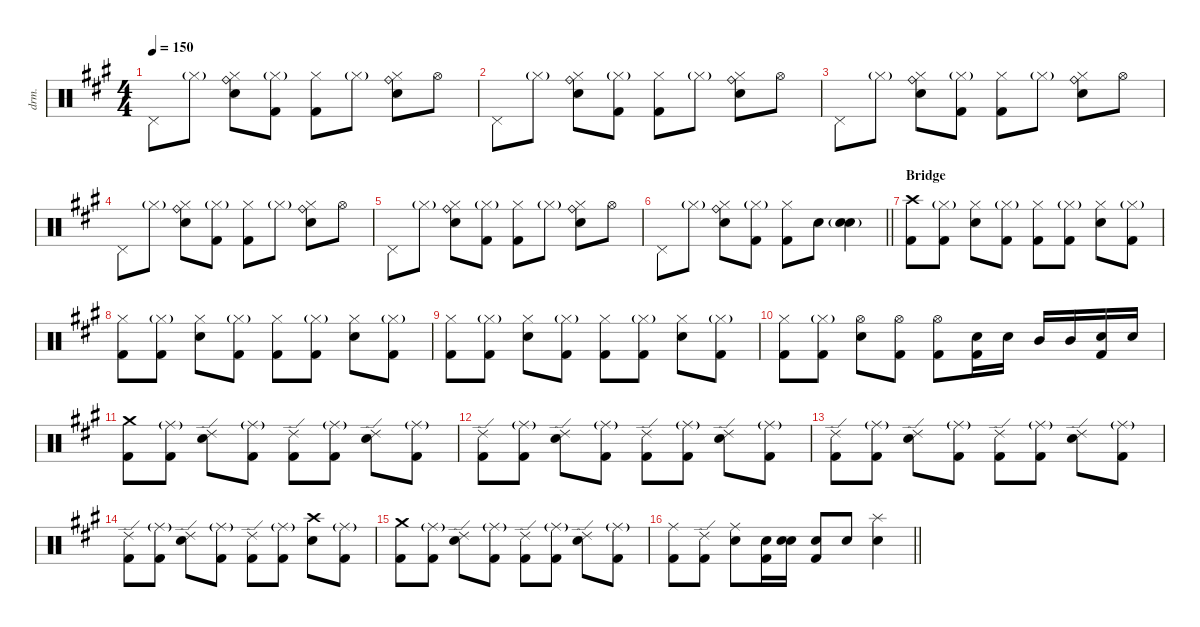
\defaultSystemsLayout 4
\hideDynamics
\bracketExtendMode nobrackets
\otherSystemsTrackNameOrientation horizontal
\track ("Drums" "drm.") {instrument percussion}
\staff {score}
\articulation defaults
\ts (4 4)
\tempo 150
\clef neutral
\ks a "Pedal Hi-Hat (hit)"{acc forcenatural}.8{dy f} "Hi-Hat (closed)"{g acc forcenatural}.8{dy p}
("Snare (hit) 2"{acc forcenatural} "Hi-Hat (closed)"{acc forcenatural} "Ride (bell)"{acc forcenatural}).8{dy ff} ("Kick (hit) 2"{acc forcenatural} "Hi-Hat (closed)"{g acc forcenatural}).8{dy mp} ("Kick (hit) 2"{acc forcenatural} "Hi-Hat (closed)"{acc forcenatural}).8{dy fff} "Hi-Hat (closed)"{g acc forcenatural}.8{dy p} ("Snare (hit) 2"{acc forcenatural} "Hi-Hat (closed)"{acc forcenatural} "Ride (bell)"{acc forcenatural}).8{dy ff} "Hi-Hat (open)"{acc forcenatural}.8{dy mp} |
"Pedal Hi-Hat (hit)"{acc forcenatural}.8{dy f} "Hi-Hat (closed)"{g acc forcenatural}.8{dy p} ("Snare (hit) 2"{acc forcenatural} "Hi-Hat (closed)"{acc forcenatural} "Ride (bell)"{acc forcenatural}).8{dy ff} ("Kick (hit) 2"{acc forcenatural} "Hi-Hat (closed)"{g acc forcenatural}).8{dy mp} ("Kick (hit) 2"{acc forcenatural} "Hi-Hat (closed)"{acc forcenatural}).8{dy fff} "Hi-Hat (closed)"{g acc forcenatural}.8{dy p} ("Snare (hit) 2"{acc forcenatural} "Hi-Hat (closed)"{acc forcenatural} "Ride (bell)"{acc forcenatural}).8{dy ff} "Hi-Hat (open)"{acc forcenatural}.8{dy mp} |
"Pedal Hi-Hat (hit)"{acc forcenatural}.8{dy f} "Hi-Hat (closed)"{g acc forcenatural}.8{dy p} ("Snare (hit) 2"{acc forcenatural} "Hi-Hat (closed)"{acc forcenatural} "Ride (bell)"{acc forcenatural}).8{dy ff} ("Kick (hit) 2"{acc forcenatural} "Hi-Hat (closed)"{g acc forcenatural}).8{dy mp} ("Kick (hit) 2"{acc forcenatural} "Hi-Hat (closed)"{acc forcenatural}).8{dy fff} "Hi-Hat (closed)"{g acc forcenatural}.8{dy p} ("Snare (hit) 2"{acc forcenatural} "Hi-Hat (closed)"{acc forcenatural} "Ride (bell)"{acc forcenatural}).8{dy ff} "Hi-Hat (open)"{acc forcenatural}.8{dy mp} |
"Pedal Hi-Hat (hit)"{acc forcenatural}.8{dy f} "Hi-Hat (closed)"{g acc forcenatural}.8{dy p} ("Snare (hit) 2"{acc forcenatural} "Hi-Hat (closed)"{acc forcenatural} "Ride (bell)"{acc forcenatural}).8{dy ff} ("Kick (hit) 2"{acc forcenatural} "Hi-Hat (closed)"{g acc forcenatural}).8{dy mp} ("Kick (hit) 2"{acc forcenatural} "Hi-Hat (closed)"{acc forcenatural}).8{dy fff} "Hi-Hat (closed)"{g acc forcenatural}.8{dy p} ("Snare (hit) 2"{acc forcenatural} "Hi-Hat (closed)"{acc forcenatural} "Ride (bell)"{acc forcenatural}).8{dy ff} "Hi-Hat (open)"{acc forcenatural}.8{dy mp} |
"Pedal Hi-Hat (hit)"{acc forcenatural}.8{dy f} "Hi-Hat (closed)"{g acc forcenatural}.8{dy p} ("Snare (hit) 2"{acc forcenatural} "Hi-Hat (closed)"{acc forcenatural} "Ride (bell)"{acc forcenatural}).8{dy ff} ("Kick (hit) 2"{acc forcenatural} "Hi-Hat (closed)"{g acc forcenatural}).8{dy mp} ("Kick (hit) 2"{acc forcenatural} "Hi-Hat (closed)"{acc forcenatural}).8{dy fff} "Hi-Hat (closed)"{g acc forcenatural}.8{dy p} ("Snare (hit) 2"{acc forcenatural} "Hi-Hat (closed)"{acc forcenatural} "Ride (bell)"{acc forcenatural}).8{dy ff} "Hi-Hat (open)"{acc forcenatural}.8{dy mp} |
\barLineRight lightlight "Pedal Hi-Hat (hit)"{acc forcenatural}.8{dy f} "Hi-Hat (closed)"{g acc forcenatural}.8{dy p}
("Snare (hit) 2"{acc forcenatural} "Hi-Hat (closed)"{acc forcenatural} "Ride (bell)"{acc forcenatural}).8{dy ff} ("Kick (hit) 2"{acc forcenatural} "Hi-Hat (closed)"{g acc forcenatural}).8{dy mp} ("Kick (hit) 2"{acc forcenatural} "Hi-Hat (closed)"{acc forcenatural}).8{dy fff} "Snare (hit) 2"{acc forcenatural}.8{dy ff} ("Snare (hit) 2"{g acc forcenatural} "Snare (hit) 2"{acc forcenatural}).4 |
\section ("" "Bridge")
("Kick (hit) 2"{acc forcenatural} "Crash high (hit)"{acc forcenatural}).8{dy fff} ("Kick (hit) 2"{acc forcenatural} "Hi-Hat (closed)"{g acc forcenatural}).8 ("Snare (hit) 2"{acc forcenatural} "Hi-Hat (closed)"{acc forcenatural}).8{dy ff} ("Kick (hit) 2"{acc forcenatural} "Hi-Hat (closed)"{g acc forcenatural}).8{dy mp} ("Kick (hit) 2"{acc forcenatural} "Hi-Hat (closed)"{acc forcenatural}).8{dy fff} ("Kick (hit) 2"{acc forcenatural} "Hi-Hat (closed)"{g acc forcenatural}).8 ("Snare (hit) 2"{acc forcenatural} "Hi-Hat (closed)"{acc forcenatural}).8{dy ff} ("Kick (hit) 2"{acc forcenatural} "Hi-Hat (closed)"{g acc forcenatural}).8{dy mp} |
("Kick (hit) 2"{acc forcenatural} "Hi-Hat (closed)"{acc forcenatural}).8{dy fff} ("Kick (hit) 2"{acc forcenatural} "Hi-Hat (closed)"{g acc forcenatural}).8 ("Snare (hit) 2"{acc forcenatural} "Hi-Hat (closed)"{acc forcenatural}).8{dy ff} ("Kick (hit) 2"{acc forcenatural} "Hi-Hat (closed)"{g acc forcenatural}).8{dy mp} ("Kick (hit) 2"{acc forcenatural} "Hi-Hat (closed)"{acc forcenatural}).8{dy fff} ("Kick (hit) 2"{acc forcenatural} "Hi-Hat (closed)"{g acc forcenatural}).8 ("Snare (hit) 2"{acc forcenatural} "Hi-Hat (closed)"{acc forcenatural}).8{dy ff} ("Kick (hit) 2"{acc forcenatural} "Hi-Hat (closed)"{g acc forcenatural}).8{dy mp} |
("Kick (hit) 2"{acc forcenatural} "Hi-Hat (closed)"{acc forcenatural}).8{dy fff} ("Kick (hit) 2"{acc forcenatural} "Hi-Hat (closed)"{g acc forcenatural}).8 ("Snare (hit) 2"{acc forcenatural} "Hi-Hat (closed)"{acc forcenatural}).8{dy ff} ("Kick (hit) 2"{acc forcenatural} "Hi-Hat (closed)"{g acc forcenatural}).8{dy mp} ("Kick (hit) 2"{acc forcenatural} "Hi-Hat (closed)"{acc forcenatural}).8{dy fff} ("Kick (hit) 2"{acc forcenatural} "Hi-Hat (closed)"{g acc forcenatural}).8 ("Snare (hit) 2"{acc forcenatural} "Hi-Hat (closed)"{acc forcenatural}).8{dy ff} ("Kick (hit) 2"{acc forcenatural} "Hi-Hat (closed)"{g acc forcenatural}).8{dy mp} |
("Kick (hit) 2"{acc forcenatural} "Hi-Hat (closed)"{acc forcenatural}).8{dy fff} ("Kick (hit) 2"{acc forcenatural} "Hi-Hat (closed)"{g acc forcenatural}).8 ("Snare (hit) 2"{acc forcenatural} "Hi-Hat (open)"{acc forcenatural}).8{dy ff} ("Kick (hit) 2"{acc forcenatural} "Hi-Hat (open)"{acc forcenatural}).8{dy mp} ("Kick (hit) 2"{acc forcenatural} "Hi-Hat (open)"{acc forcenatural}).8{dy fff} ("Kick (hit) 2"{acc forcenatural} "Snare (hit) 2"{acc forcenatural}).16 "Snare (hit) 2"{acc forcenatural}.16{dy ff} "Mid Tom (hit)"{acc forcenatural}.16{dy mf} "Mid Tom (hit)"{acc forcenatural}.16{dy f} ("Kick (hit) 2"{acc forcenatural} "Snare (hit) 2"{acc forcenatural}).16{dy mp} "Snare (hit) 2"{acc forcenatural}.16{dy fff} |
("Kick (hit) 2"{acc forcenatural} "Crash medium (hit)"{acc forcenatural}).8 ("Kick (hit) 2"{acc forcenatural} "Ride (middle)"{g acc forcenatural}).8 ("Snare (hit) 2"{acc forcenatural} "Ride (edge) 2"{acc forcenatural}).8{dy ff} ("Kick (hit) 2"{acc forcenatural} "Ride (middle)"{g acc forcenatural}).8{dy mp} ("Kick (hit) 2"{acc forcenatural} "Ride (edge) 2"{acc forcenatural}).8{dy fff} ("Kick (hit) 2"{acc forcenatural} "Ride (middle)"{g acc forcenatural}).8 ("Snare (hit) 2"{acc forcenatural} "Ride (edge) 2"{acc forcenatural}).8{dy ff} ("Kick (hit) 2"{acc forcenatural} "Ride (middle)"{g acc forcenatural}).8{dy mp} |
("Kick (hit) 2"{acc forcenatural} "Ride (edge) 2"{acc forcenatural}).8{dy fff} ("Kick (hit) 2"{acc forcenatural} "Ride (middle)"{g acc forcenatural}).8 ("Snare (hit) 2"{acc forcenatural} "Ride (edge) 2"{acc forcenatural}).8{dy ff} ("Kick (hit) 2"{acc forcenatural} "Ride (middle)"{g acc forcenatural}).8{dy mp} ("Kick (hit) 2"{acc forcenatural} "Ride (edge) 2"{acc forcenatural}).8{dy fff} ("Kick (hit) 2"{acc forcenatural} "Ride (middle)"{g acc forcenatural}).8 ("Snare (hit) 2"{acc forcenatural} "Ride (edge) 2"{acc forcenatural}).8{dy ff} ("Kick (hit) 2"{acc forcenatural} "Ride (middle)"{g acc forcenatural}).8{dy mp} |
("Kick (hit) 2"{acc forcenatural} "Ride (edge) 2"{acc forcenatural}).8{dy fff} ("Kick (hit) 2"{acc forcenatural} "Ride (middle)"{g acc forcenatural}).8 ("Snare (hit) 2"{acc forcenatural} "Ride (edge) 2"{acc forcenatural}).8{dy ff} ("Kick (hit) 2"{acc forcenatural} "Ride (middle)"{g acc forcenatural}).8{dy mp} ("Kick (hit) 2"{acc forcenatural} "Ride (edge) 2"{acc forcenatural}).8{dy fff} ("Kick (hit) 2"{acc forcenatural} "Ride (middle)"{g acc forcenatural}).8 ("Snare (hit) 2"{acc forcenatural} "Ride (edge) 2"{acc forcenatural}).8{dy ff} ("Kick (hit) 2"{acc forcenatural} "Ride (middle)"{g acc forcenatural}).8{dy mp} |
("Kick (hit) 2"{acc forcenatural} "Ride (edge) 2"{acc forcenatural}).8{dy fff} ("Kick (hit) 2"{acc forcenatural} "Ride (middle)"{g acc forcenatural}).8 ("Snare (hit) 2"{acc forcenatural} "Ride (edge) 2"{acc forcenatural}).8{dy ff} ("Kick (hit) 2"{acc forcenatural} "Ride (middle)"{g acc forcenatural}).8{dy mp} ("Kick (hit) 2"{acc forcenatural} "Ride (edge) 2"{acc forcenatural}).8{dy fff} ("Kick (hit) 2"{acc forcenatural} "Ride (middle)"{g acc forcenatural}).8 ("Snare (hit) 2"{acc forcenatural} "Crash high (hit)"{acc forcenatural}).8{dy ff} ("Kick (hit) 2"{acc forcenatural} "Ride (middle)"{g acc forcenatural}).8{dy mp} |
("Kick (hit) 2"{acc forcenatural} "Crash medium (hit)"{acc forcenatural}).8{dy fff} ("Kick (hit) 2"{acc forcenatural} "Ride (middle)"{g acc forcenatural}).8 ("Snare (hit) 2"{acc forcenatural} "Ride (edge) 2"{acc forcenatural}).8{dy ff} ("Kick (hit) 2"{acc forcenatural} "Ride (middle)"{g acc forcenatural}).8{dy mp} ("Kick (hit) 2"{acc forcenatural} "Ride (edge) 2"{acc forcenatural}).8{dy fff} ("Kick (hit) 2"{acc forcenatural} "Ride (middle)"{g acc forcenatural}).8 ("Snare (hit) 2"{acc forcenatural} "Ride (edge) 2"{acc forcenatural}).8{dy ff} ("Kick (hit) 2"{acc forcenatural} "Ride (middle)"{g acc forcenatural}).8{dy mp} |
\barLineRight lightlight
("Kick (hit) 2"{acc forcenatural} "Ride (middle)"{acc forcenatural}).8{dy fff} ("Kick (hit) 2"{acc forcenatural} "Ride (edge) 2"{acc forcenatural}).8 ("Snare (hit) 2"{acc forcenatural} "Ride (middle)"{acc forcenatural}).8{dy ff} ("Kick (hit) 2"{acc forcenatural} "Snare (hit) 2"{acc forcenatural}).16{dy mp} ("Snare (hit) 2"{acc forcenatural} "Snare (hit) 2"{acc forcenatural}).16{dy mf} ("Kick (hit) 2"{acc forcenatural} "Snare (hit) 2"{acc forcenatural}).8{dy fff} "Snare (hit) 2"{acc forcenatural}.8{dy ff} ("Snare (hit) 2"{acc forcenatural} "Splash (hit)"{acc forcenatural}).4{dy fff}
